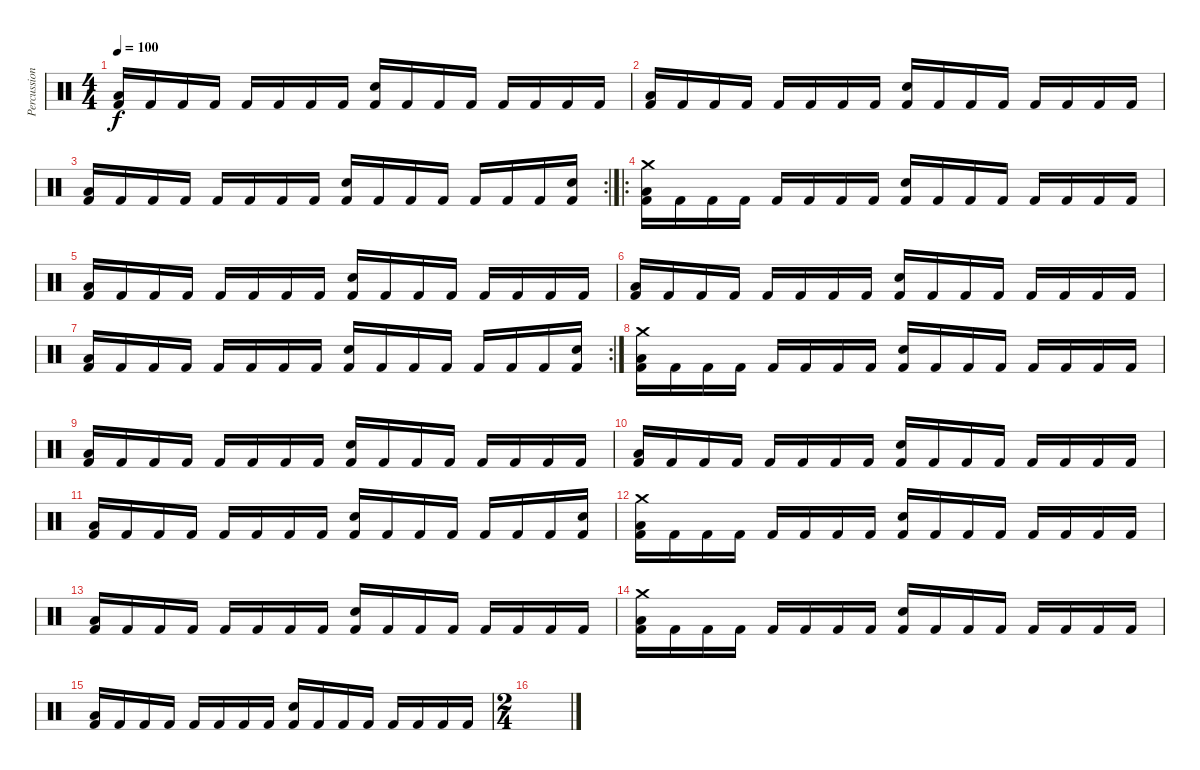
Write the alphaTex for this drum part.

\track ("Percussion" "Percussion") {instrument percussion}
\staff {score}
\articulation defaults
\ts (4 4)
\tempo 100
\clef neutral
\ks c
("Low Tom (hit)" "Kick (hit) 2").16{dy f} "Kick (hit) 2".16 "Kick (hit) 2".16 "Kick (hit) 2".16 "Kick (hit) 2".16 "Kick (hit) 2".16 "Kick (hit) 2".16 "Kick (hit) 2".16 ("Electric Snare (hit)" "Kick (hit) 2").16 "Kick (hit) 2".16 "Kick (hit) 2".16 "Kick (hit) 2".16 "Kick (hit) 2".16 "Kick (hit) 2".16 "Kick (hit) 2".16 "Kick (hit) 2".16 |
("Low Tom (hit)" "Kick (hit) 2").16 "Kick (hit) 2".16 "Kick (hit) 2".16 "Kick (hit) 2".16 "Kick (hit) 2".16 "Kick (hit) 2".16 "Kick (hit) 2".16 "Kick (hit) 2".16 ("Electric Snare (hit)" "Kick (hit) 2").16 "Kick (hit) 2".16 "Kick (hit) 2".16 "Kick (hit) 2".16 "Kick (hit) 2".16 "Kick (hit) 2".16 "Kick (hit) 2".16 "Kick (hit) 2".16 |
\rc 2
("Low Tom (hit)" "Kick (hit) 2").16 "Kick (hit) 2".16 "Kick (hit) 2".16 "Kick (hit) 2".16 "Kick (hit) 2".16 "Kick (hit) 2".16 "Kick (hit) 2".16 "Kick (hit) 2".16 ("Electric Snare (hit)" "Kick (hit) 2").16 "Kick (hit) 2".16 "Kick (hit) 2".16 "Kick (hit) 2".16 "Kick (hit) 2".16 "Kick (hit) 2".16 "Kick (hit) 2".16 ("Electric Snare (hit)" "Kick (hit) 2").16 |
\ro
("Crash medium (hit)" "Low Tom (hit)" "Kick (hit) 2").16 "Kick (hit) 2".16 "Kick (hit) 2".16 "Kick (hit) 2".16 "Kick (hit) 2".16 "Kick (hit) 2".16 "Kick (hit) 2".16 "Kick (hit) 2".16 ("Electric Snare (hit)" "Kick (hit) 2").16 "Kick (hit) 2".16 "Kick (hit) 2".16 "Kick (hit) 2".16 "Kick (hit) 2".16 "Kick (hit) 2".16 "Kick (hit) 2".16 "Kick (hit) 2".16 |
("Low Tom (hit)" "Kick (hit) 2").16 "Kick (hit) 2".16 "Kick (hit) 2".16 "Kick (hit) 2".16 "Kick (hit) 2".16 "Kick (hit) 2".16 "Kick (hit) 2".16 "Kick (hit) 2".16 ("Electric Snare (hit)" "Kick (hit) 2").16 "Kick (hit) 2".16 "Kick (hit) 2".16 "Kick (hit) 2".16 "Kick (hit) 2".16 "Kick (hit) 2".16 "Kick (hit) 2".16 "Kick (hit) 2".16 |
("Low Tom (hit)" "Kick (hit) 2").16 "Kick (hit) 2".16 "Kick (hit) 2".16 "Kick (hit) 2".16 "Kick (hit) 2".16 "Kick (hit) 2".16 "Kick (hit) 2".16 "Kick (hit) 2".16 ("Electric Snare (hit)" "Kick (hit) 2").16 "Kick (hit) 2".16 "Kick (hit) 2".16 "Kick (hit) 2".16 "Kick (hit) 2".16 "Kick (hit) 2".16 "Kick (hit) 2".16 "Kick (hit) 2".16 |
\rc 2
("Low Tom (hit)" "Kick (hit) 2").16 "Kick (hit) 2".16 "Kick (hit) 2".16 "Kick (hit) 2".16 "Kick (hit) 2".16 "Kick (hit) 2".16 "Kick (hit) 2".16 "Kick (hit) 2".16 ("Electric Snare (hit)" "Kick (hit) 2").16 "Kick (hit) 2".16 "Kick (hit) 2".16 "Kick (hit) 2".16 "Kick (hit) 2".16 "Kick (hit) 2".16 "Kick (hit) 2".16 ("Electric Snare (hit)" "Kick (hit) 2").16 |
("Crash medium (hit)" "Low Tom (hit)" "Kick (hit) 2").16 "Kick (hit) 2".16 "Kick (hit) 2".16 "Kick (hit) 2".16 "Kick (hit) 2".16 "Kick (hit) 2".16 "Kick (hit) 2".16 "Kick (hit) 2".16 ("Electric Snare (hit)" "Kick (hit) 2").16 "Kick (hit) 2".16 "Kick (hit) 2".16 "Kick (hit) 2".16 "Kick (hit) 2".16 "Kick (hit) 2".16 "Kick (hit) 2".16 "Kick (hit) 2".16 |
("Low Tom (hit)" "Kick (hit) 2").16 "Kick (hit) 2".16 "Kick (hit) 2".16 "Kick (hit) 2".16 "Kick (hit) 2".16 "Kick (hit) 2".16 "Kick (hit) 2".16 "Kick (hit) 2".16 ("Electric Snare (hit)" "Kick (hit) 2").16 "Kick (hit) 2".16 "Kick (hit) 2".16 "Kick (hit) 2".16 "Kick (hit) 2".16 "Kick (hit) 2".16 "Kick (hit) 2".16 "Kick (hit) 2".16 |
("Low Tom (hit)" "Kick (hit) 2").16 "Kick (hit) 2".16 "Kick (hit) 2".16 "Kick (hit) 2".16 "Kick (hit) 2".16 "Kick (hit) 2".16 "Kick (hit) 2".16 "Kick (hit) 2".16 ("Electric Snare (hit)" "Kick (hit) 2").16 "Kick (hit) 2".16 "Kick (hit) 2".16 "Kick (hit) 2".16 "Kick (hit) 2".16 "Kick (hit) 2".16 "Kick (hit) 2".16 "Kick (hit) 2".16 |
("Low Tom (hit)" "Kick (hit) 2").16 "Kick (hit) 2".16 "Kick (hit) 2".16 "Kick (hit) 2".16 "Kick (hit) 2".16 "Kick (hit) 2".16 "Kick (hit) 2".16 "Kick (hit) 2".16 ("Electric Snare (hit)" "Kick (hit) 2").16 "Kick (hit) 2".16 "Kick (hit) 2".16 "Kick (hit) 2".16 "Kick (hit) 2".16 "Kick (hit) 2".16 "Kick (hit) 2".16 ("Electric Snare (hit)" "Kick (hit) 2").16 |
("Crash medium (hit)" "Low Tom (hit)" "Kick (hit) 2").16 "Kick (hit) 2".16 "Kick (hit) 2".16 "Kick (hit) 2".16 "Kick (hit) 2".16 "Kick (hit) 2".16 "Kick (hit) 2".16 "Kick (hit) 2".16 ("Electric Snare (hit)" "Kick (hit) 2").16 "Kick (hit) 2".16 "Kick (hit) 2".16 "Kick (hit) 2".16 "Kick (hit) 2".16 "Kick (hit) 2".16 "Kick (hit) 2".16 "Kick (hit) 2".16 |
("Low Tom (hit)" "Kick (hit) 2").16 "Kick (hit) 2".16 "Kick (hit) 2".16 "Kick (hit) 2".16 "Kick (hit) 2".16 "Kick (hit) 2".16 "Kick (hit) 2".16 "Kick (hit) 2".16 ("Electric Snare (hit)" "Kick (hit) 2").16 "Kick (hit) 2".16 "Kick (hit) 2".16 "Kick (hit) 2".16 "Kick (hit) 2".16 "Kick (hit) 2".16 "Kick (hit) 2".16 "Kick (hit) 2".16 |
("Crash medium (hit)" "Low Tom (hit)" "Kick (hit) 2").16 "Kick (hit) 2".16 "Kick (hit) 2".16 "Kick (hit) 2".16 "Kick (hit) 2".16 "Kick (hit) 2".16 "Kick (hit) 2".16 "Kick (hit) 2".16 ("Electric Snare (hit)" "Kick (hit) 2").16 "Kick (hit) 2".16 "Kick (hit) 2".16 "Kick (hit) 2".16 "Kick (hit) 2".16 "Kick (hit) 2".16 "Kick (hit) 2".16 "Kick (hit) 2".16 |
("Low Tom (hit)" "Kick (hit) 2").16 "Kick (hit) 2".16 "Kick (hit) 2".16 "Kick (hit) 2".16 "Kick (hit) 2".16 "Kick (hit) 2".16 "Kick (hit) 2".16 "Kick (hit) 2".16 ("Electric Snare (hit)" "Kick (hit) 2").16 "Kick (hit) 2".16 "Kick (hit) 2".16 "Kick (hit) 2".16 "Kick (hit) 2".16 "Kick (hit) 2".16 "Kick (hit) 2".16 "Kick (hit) 2".16 |
\ts (2 4)
